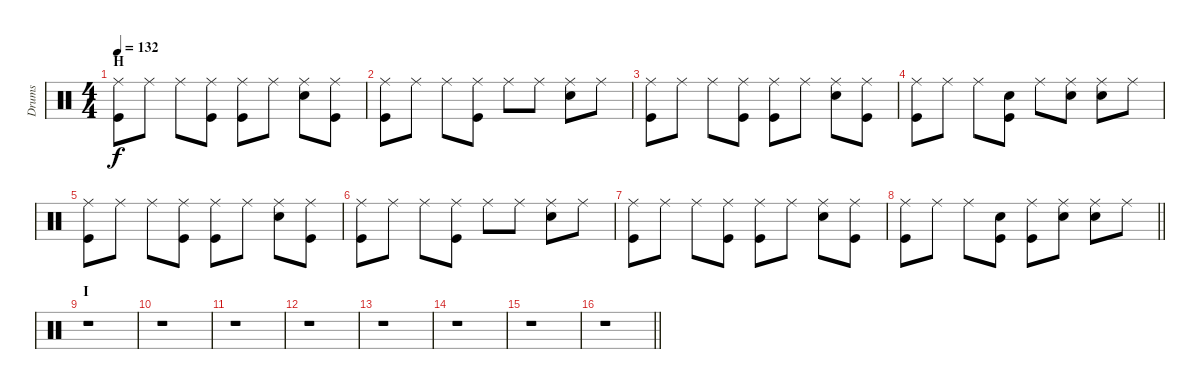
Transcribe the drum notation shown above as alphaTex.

\track ("Drums" "Drums") {instrument percussion}
\staff {score}
\articulation defaults
\ts (4 4)
\section ("" "H")
\tempo 132
\clef neutral
\ks c
("Ride (middle)" "Kick (hit)").8{dy f} "Ride (middle)".8 "Ride (middle)".8 ("Ride (middle)" "Kick (hit)").8 ("Ride (middle)" "Kick (hit)").8 "Ride (middle)".8 ("Ride (middle)" "Electric Snare (hit)").8 ("Ride (middle)" "Kick (hit)").8 |
("Ride (middle)" "Kick (hit)").8 "Ride (middle)".8 "Ride (middle)".8 ("Ride (middle)" "Kick (hit)").8 "Ride (middle)".8 "Ride (middle)".8 ("Ride (middle)" "Electric Snare (hit)").8 "Ride (middle)".8 |
("Ride (middle)" "Kick (hit)").8 "Ride (middle)".8 "Ride (middle)".8 ("Ride (middle)" "Kick (hit)").8 ("Ride (middle)" "Kick (hit)").8 "Ride (middle)".8 ("Ride (middle)" "Electric Snare (hit)").8 ("Ride (middle)" "Kick (hit)").8 |
("Ride (middle)" "Kick (hit)").8 "Ride (middle)".8 "Ride (middle)".8 ("Snare (hit)" "Kick (hit)").8 "Ride (middle)".8 ("Ride (middle)" "Electric Snare (hit)").8 ("Ride (middle)" "Electric Snare (hit)").8 "Ride (middle)".8 |
("Ride (middle)" "Kick (hit)").8 "Ride (middle)".8 "Ride (middle)".8 ("Ride (middle)" "Kick (hit)").8 ("Ride (middle)" "Kick (hit)").8 "Ride (middle)".8 ("Ride (middle)" "Electric Snare (hit)").8 ("Ride (middle)" "Kick (hit)").8 |
("Ride (middle)" "Kick (hit)").8 "Ride (middle)".8 "Ride (middle)".8 ("Ride (middle)" "Kick (hit)").8 "Ride (middle)".8 "Ride (middle)".8 ("Ride (middle)" "Electric Snare (hit)").8 "Ride (middle)".8 |
("Ride (middle)" "Kick (hit)").8 "Ride (middle)".8 "Ride (middle)".8 ("Ride (middle)" "Kick (hit)").8 ("Ride (middle)" "Kick (hit)").8 "Ride (middle)".8 ("Ride (middle)" "Electric Snare (hit)").8 ("Ride (middle)" "Kick (hit)").8 |
\barLineRight lightlight
("Ride (middle)" "Kick (hit)").8 "Ride (middle)".8 "Ride (middle)".8 ("Snare (hit)" "Kick (hit)").8 ("Ride (middle)" "Kick (hit)").8 ("Ride (middle)" "Electric Snare (hit)").8 ("Ride (middle)" "Electric Snare (hit)").8 "Ride (middle)".8 |
\section ("" "I")
r.1 |
r.1 |
r.1 |
r.1 |
r.1 |
r.1 |
r.1 |
\barLineRight lightlight
r.1
